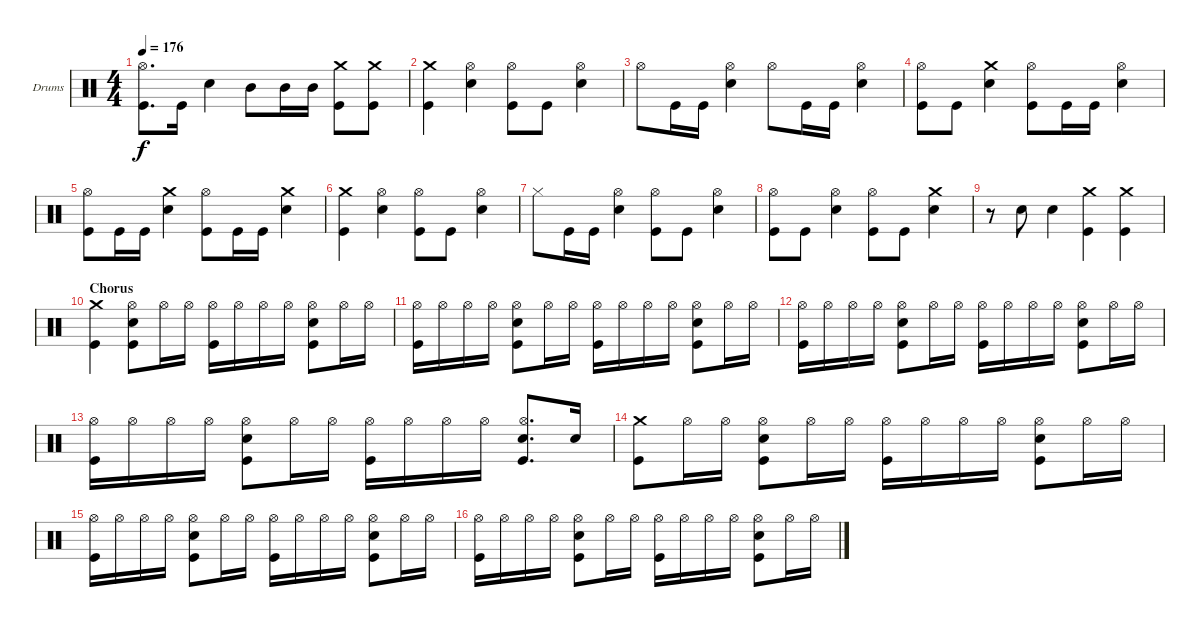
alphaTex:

\bracketExtendMode groupsimilarinstruments
\firstSystemTrackNameOrientation horizontal
\otherSystemsTrackNameOrientation horizontal
\track ("Drums" "Drums") {instrument percussion}
\staff {score}
\articulation defaults
\ts (4 4)
\tempo 176
\clef neutral
\ks c
("Kick (hit)" "Hi-Hat (open)").8{d dy f} "Kick (hit)".16 "Snare (hit) 2".4 "Mid Tom (hit)".8 "Mid Tom (hit)".16 "Mid Tom (hit)".16 ("Kick (hit)" "Crash medium (hit)").8 ("Kick (hit)" "Crash medium (hit)").8 |
("Crash medium (hit)" "Kick (hit)").4 ("Hi-Hat (open)" "Snare (hit) 2").4 ("Hi-Hat (open)" "Kick (hit)").8 "Kick (hit)".8 ("Hi-Hat (open)" "Snare (hit) 2").4 |
"Hi-Hat (open)".8 "Kick (hit)".16 "Kick (hit)".16 ("Hi-Hat (open)" "Snare (hit) 2").4 "Hi-Hat (open)".8 "Kick (hit)".16 "Kick (hit)".16 ("Hi-Hat (open)" "Snare (hit) 2").4 |
("Hi-Hat (open)" "Kick (hit)").8 "Kick (hit)".8 ("Snare (hit) 2" "Crash medium (hit)").4 ("Hi-Hat (open)" "Kick (hit)").8 "Kick (hit)".16 "Kick (hit)".16 ("Snare (hit) 2" "Hi-Hat (open)").4 |
("Kick (hit)" "Hi-Hat (open)").8 "Kick (hit)".16 "Kick (hit)".16 ("Crash medium (hit)" "Snare (hit) 2").4 ("Hi-Hat (open)" "Kick (hit)").8 "Kick (hit)".16 "Kick (hit)".16 ("Crash medium (hit)" "Snare (hit) 2").4 |
("Crash medium (hit)" "Kick (hit)").4 ("Hi-Hat (open)" "Snare (hit) 2").4 ("Hi-Hat (open)" "Kick (hit)").8 "Kick (hit)".8 ("Hi-Hat (open)" "Snare (hit) 2").4 |
"Hi-Hat (closed)".8 "Kick (hit)".16 "Kick (hit)".16 ("Hi-Hat (open)" "Snare (hit) 2").4 ("Hi-Hat (open)" "Kick (hit)").8 "Kick (hit)".8 ("Hi-Hat (open)" "Snare (hit) 2").4 |
("Hi-Hat (open)" "Kick (hit)").8 "Kick (hit)".8 ("Hi-Hat (open)" "Snare (hit) 2").4 ("Hi-Hat (open)" "Kick (hit)").8 "Kick (hit)".8 ("Crash medium (hit)" "Snare (hit) 2").4 |
r.8 "Snare (hit) 2".8 "Snare (hit) 2".4 ("Crash medium (hit)" "Kick (hit)").4 ("Crash medium (hit)" "Kick (hit)").4 |
\section ("" "Chorus")
("Crash medium (hit)" "Kick (hit)").4 ("Snare (hit) 2" "Kick (hit)" "Hi-Hat (open)").8 "Hi-Hat (open)".16 "Hi-Hat (open)".16 ("Kick (hit)" "Hi-Hat (open)").16 "Hi-Hat (open)".16 "Hi-Hat (open)".16 "Hi-Hat (open)".16 ("Snare (hit) 2" "Kick (hit)" "Hi-Hat (open)").8 "Hi-Hat (open)".16 "Hi-Hat (open)".16 |
("Kick (hit)" "Hi-Hat (open)").16 "Hi-Hat (open)".16 "Hi-Hat (open)".16 "Hi-Hat (open)".16 ("Snare (hit) 2" "Kick (hit)" "Hi-Hat (open)").8 "Hi-Hat (open)".16 "Hi-Hat (open)".16 ("Kick (hit)" "Hi-Hat (open)").16 "Hi-Hat (open)".16 "Hi-Hat (open)".16 "Hi-Hat (open)".16 ("Snare (hit) 2" "Kick (hit)" "Hi-Hat (open)").8 "Hi-Hat (open)".16 "Hi-Hat (open)".16 |
("Kick (hit)" "Hi-Hat (open)").16 "Hi-Hat (open)".16 "Hi-Hat (open)".16 "Hi-Hat (open)".16 ("Snare (hit) 2" "Kick (hit)" "Hi-Hat (open)").8 "Hi-Hat (open)".16 "Hi-Hat (open)".16 ("Kick (hit)" "Hi-Hat (open)").16 "Hi-Hat (open)".16 "Hi-Hat (open)".16 "Hi-Hat (open)".16 ("Snare (hit) 2" "Kick (hit)" "Hi-Hat (open)").8 "Hi-Hat (open)".16 "Hi-Hat (open)".16 |
("Kick (hit)" "Hi-Hat (open)").16 "Hi-Hat (open)".16 "Hi-Hat (open)".16 "Hi-Hat (open)".16 ("Snare (hit) 2" "Kick (hit)" "Hi-Hat (open)").8 "Hi-Hat (open)".16 "Hi-Hat (open)".16 ("Kick (hit)" "Hi-Hat (open)").16 "Hi-Hat (open)".16 "Hi-Hat (open)".16 "Hi-Hat (open)".16 ("Snare (hit) 2" "Kick (hit)" "Hi-Hat (open)").8{d} "Snare (hit) 2".16 |
("Crash medium (hit)" "Kick (hit)").8 "Hi-Hat (open)".16 "Hi-Hat (open)".16 ("Snare (hit) 2" "Kick (hit)" "Hi-Hat (open)").8 "Hi-Hat (open)".16 "Hi-Hat (open)".16 ("Kick (hit)" "Hi-Hat (open)").16 "Hi-Hat (open)".16 "Hi-Hat (open)".16 "Hi-Hat (open)".16 ("Snare (hit) 2" "Kick (hit)" "Hi-Hat (open)").8 "Hi-Hat (open)".16 "Hi-Hat (open)".16 |
("Kick (hit)" "Hi-Hat (open)").16 "Hi-Hat (open)".16 "Hi-Hat (open)".16 "Hi-Hat (open)".16 ("Snare (hit) 2" "Kick (hit)" "Hi-Hat (open)").8 "Hi-Hat (open)".16 "Hi-Hat (open)".16 ("Kick (hit)" "Hi-Hat (open)").16 "Hi-Hat (open)".16 "Hi-Hat (open)".16 "Hi-Hat (open)".16 ("Snare (hit) 2" "Kick (hit)" "Hi-Hat (open)").8 "Hi-Hat (open)".16 "Hi-Hat (open)".16 |
("Kick (hit)" "Hi-Hat (open)").16 "Hi-Hat (open)".16 "Hi-Hat (open)".16 "Hi-Hat (open)".16 ("Snare (hit) 2" "Kick (hit)" "Hi-Hat (open)").8 "Hi-Hat (open)".16 "Hi-Hat (open)".16 ("Kick (hit)" "Hi-Hat (open)").16 "Hi-Hat (open)".16 "Hi-Hat (open)".16 "Hi-Hat (open)".16 ("Snare (hit) 2" "Kick (hit)" "Hi-Hat (open)").8 "Hi-Hat (open)".16 "Hi-Hat (open)".16
